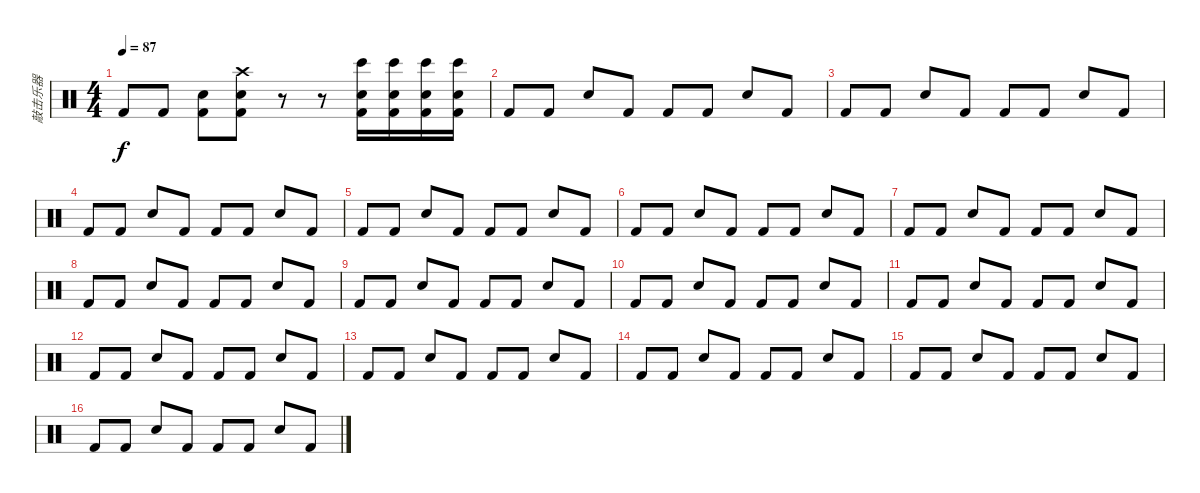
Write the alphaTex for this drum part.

\track ("敲击乐器" "敲击乐器") {instrument percussion}
\staff {score}
\articulation defaults
\ts (4 4)
\tempo 87
\clef neutral
\ks c "Kick (hit) 2".8{dy f} "Kick (hit) 2".8
("Kick (hit) 2" "Snare (hit) 2").8 ("Kick (hit) 2" "Snare (hit) 2" "Crash high (hit)").8 r.8 r.8 ("Bongo High (hit)" "Kick (hit) 2" "Snare (hit) 2").16 ("Bongo High (hit)" "Kick (hit) 2" "Snare (hit) 2").16 ("Bongo High (hit)" "Kick (hit) 2" "Snare (hit) 2").16 ("Bongo High (hit)" "Kick (hit) 2" "Snare (hit) 2").16 |
"Kick (hit) 2".8 "Kick (hit) 2".8 "Snare (hit) 2".8 "Kick (hit) 2".8 "Kick (hit) 2".8 "Kick (hit) 2".8 "Snare (hit) 2".8 "Kick (hit) 2".8 |
"Kick (hit) 2".8 "Kick (hit) 2".8 "Snare (hit) 2".8 "Kick (hit) 2".8 "Kick (hit) 2".8 "Kick (hit) 2".8 "Snare (hit) 2".8 "Kick (hit) 2".8 |
"Kick (hit) 2".8 "Kick (hit) 2".8 "Snare (hit) 2".8 "Kick (hit) 2".8 "Kick (hit) 2".8 "Kick (hit) 2".8 "Snare (hit) 2".8 "Kick (hit) 2".8 |
"Kick (hit) 2".8 "Kick (hit) 2".8 "Snare (hit) 2".8 "Kick (hit) 2".8 "Kick (hit) 2".8 "Kick (hit) 2".8 "Snare (hit) 2".8 "Kick (hit) 2".8 |
"Kick (hit) 2".8 "Kick (hit) 2".8 "Snare (hit) 2".8 "Kick (hit) 2".8 "Kick (hit) 2".8 "Kick (hit) 2".8 "Snare (hit) 2".8 "Kick (hit) 2".8 |
"Kick (hit) 2".8 "Kick (hit) 2".8 "Snare (hit) 2".8 "Kick (hit) 2".8 "Kick (hit) 2".8 "Kick (hit) 2".8 "Snare (hit) 2".8 "Kick (hit) 2".8 |
"Kick (hit) 2".8 "Kick (hit) 2".8 "Snare (hit) 2".8 "Kick (hit) 2".8 "Kick (hit) 2".8 "Kick (hit) 2".8 "Snare (hit) 2".8 "Kick (hit) 2".8 |
"Kick (hit) 2".8 "Kick (hit) 2".8 "Snare (hit) 2".8 "Kick (hit) 2".8 "Kick (hit) 2".8 "Kick (hit) 2".8 "Snare (hit) 2".8 "Kick (hit) 2".8 |
"Kick (hit) 2".8 "Kick (hit) 2".8 "Snare (hit) 2".8 "Kick (hit) 2".8 "Kick (hit) 2".8 "Kick (hit) 2".8 "Snare (hit) 2".8 "Kick (hit) 2".8 |
"Kick (hit) 2".8 "Kick (hit) 2".8 "Snare (hit) 2".8 "Kick (hit) 2".8 "Kick (hit) 2".8 "Kick (hit) 2".8 "Snare (hit) 2".8 "Kick (hit) 2".8 |
"Kick (hit) 2".8 "Kick (hit) 2".8 "Snare (hit) 2".8 "Kick (hit) 2".8 "Kick (hit) 2".8 "Kick (hit) 2".8 "Snare (hit) 2".8 "Kick (hit) 2".8 |
"Kick (hit) 2".8 "Kick (hit) 2".8 "Snare (hit) 2".8 "Kick (hit) 2".8 "Kick (hit) 2".8 "Kick (hit) 2".8 "Snare (hit) 2".8 "Kick (hit) 2".8 |
"Kick (hit) 2".8 "Kick (hit) 2".8 "Snare (hit) 2".8 "Kick (hit) 2".8 "Kick (hit) 2".8 "Kick (hit) 2".8 "Snare (hit) 2".8 "Kick (hit) 2".8 |
"Kick (hit) 2".8 "Kick (hit) 2".8 "Snare (hit) 2".8 "Kick (hit) 2".8 "Kick (hit) 2".8 "Kick (hit) 2".8 "Snare (hit) 2".8 "Kick (hit) 2".8 |
"Kick (hit) 2".8 "Kick (hit) 2".8 "Snare (hit) 2".8 "Kick (hit) 2".8 "Kick (hit) 2".8 "Kick (hit) 2".8 "Snare (hit) 2".8 "Kick (hit) 2".8
